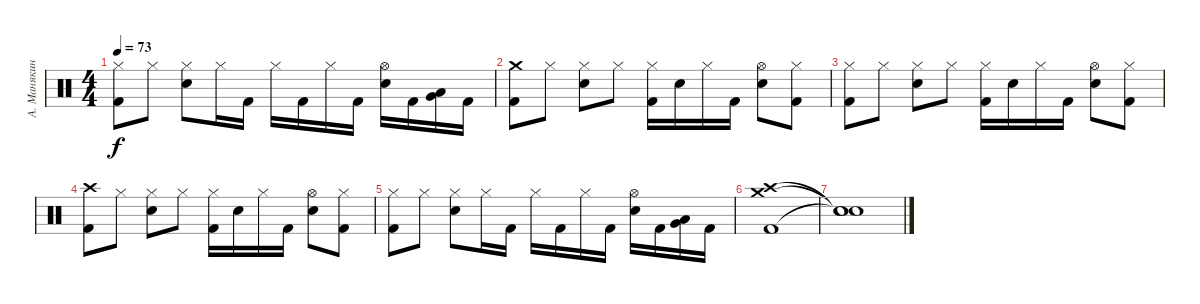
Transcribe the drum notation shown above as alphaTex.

\track ("А. Манякин" "А. Манякин") {instrument percussion}
\staff {score}
\articulation defaults
\ts (4 4)
\tempo 73
\clef neutral
\ks c
("Kick (hit) 2" "Hi-Hat (closed)").8{dy f} "Hi-Hat (closed)".8 ("Snare (hit) 2" "Hi-Hat (closed)").8 "Hi-Hat (closed)".16 "Kick (hit) 2".16 "Hi-Hat (closed)".16 "Kick (hit) 2".16 "Hi-Hat (closed)".16 "Kick (hit) 2".16 ("Hi-Hat (open)" "Snare (hit) 2").16 "Kick (hit) 2".16 ("Very Low Tom (hit)" "Low Tom (hit)").16 "Kick (hit) 2".16 |
("Kick (hit) 2" "Crash medium (hit)").8 "Hi-Hat (closed)".8 ("Snare (hit) 2" "Hi-Hat (closed)").8 "Hi-Hat (closed)".8 ("Kick (hit) 2" "Hi-Hat (closed)").16 "Snare (hit) 2".16 "Hi-Hat (closed)".16 "Kick (hit) 2".16 ("Snare (hit) 2" "Hi-Hat (open)").8 ("Kick (hit) 2" "Hi-Hat (closed)").8 |
("Kick (hit) 2" "Hi-Hat (closed)").8 "Hi-Hat (closed)".8 ("Snare (hit) 2" "Hi-Hat (closed)").8 "Hi-Hat (closed)".8 ("Kick (hit) 2" "Hi-Hat (closed)").16 "Snare (hit) 2".16 "Hi-Hat (closed)".16 "Kick (hit) 2".16 ("Snare (hit) 2" "Hi-Hat (open)").8 ("Kick (hit) 2" "Hi-Hat (closed)").8 |
("Kick (hit) 2" "Crash high (hit)").8 "Hi-Hat (closed)".8 ("Snare (hit) 2" "Hi-Hat (closed)").8 "Hi-Hat (closed)".8 ("Kick (hit) 2" "Hi-Hat (closed)").16 "Snare (hit) 2".16 "Hi-Hat (closed)".16 "Kick (hit) 2".16 ("Snare (hit) 2" "Hi-Hat (open)").8 ("Kick (hit) 2" "Hi-Hat (closed)").8 |
("Kick (hit) 2" "Hi-Hat (closed)").8 "Hi-Hat (closed)".8 ("Snare (hit) 2" "Hi-Hat (closed)").8 "Hi-Hat (closed)".16 "Kick (hit) 2".16 "Hi-Hat (closed)".16 "Kick (hit) 2".16 "Hi-Hat (closed)".16 "Kick (hit) 2".16 ("Hi-Hat (open)" "Snare (hit) 2").16 "Kick (hit) 2".16 ("Very Low Tom (hit)" "Low Tom (hit)").16 "Kick (hit) 2".16 |
("Crash medium (hit)" "Crash high (hit)" "Kick (hit) 2").1 |
("Snare (hit)"{t} "Snare (hit)"{t} "Snare (hit)"{t}).1
